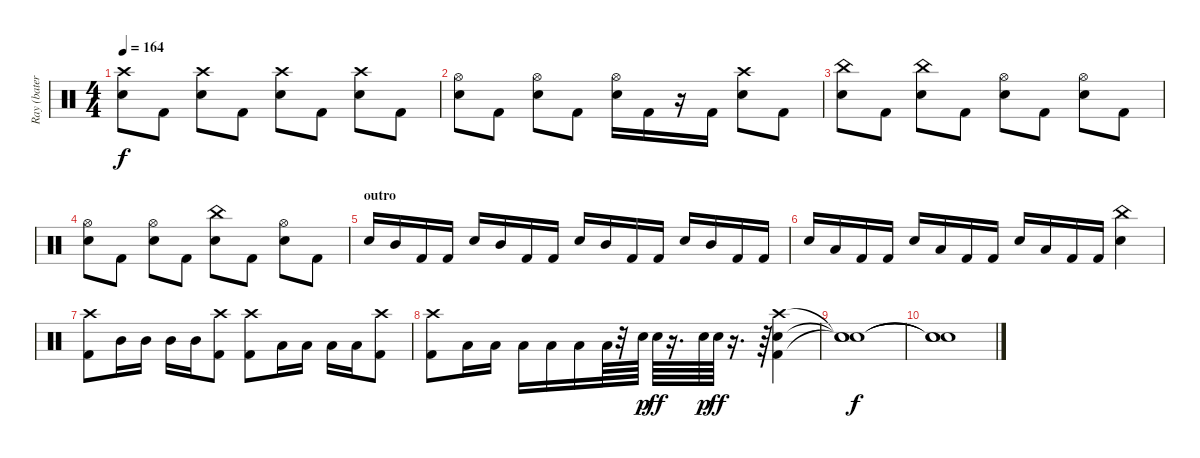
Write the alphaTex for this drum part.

\track ("Ray (batería)" "Ray (bater") {instrument percussion}
\staff {score}
\articulation defaults
\ts (4 4)
\tempo 164
\clef neutral
\ks c
("Crash high (hit)" "Snare (hit) 2").8{dy f} "Kick (hit) 2".8 ("Crash high (hit)" "Snare (hit) 2").8 "Kick (hit) 2".8 ("Crash high (hit)" "Snare (hit) 2").8 "Kick (hit) 2".8 ("Crash high (hit)" "Snare (hit) 2").8 "Kick (hit) 2".8 |
("Hi-Hat (open)" "Snare (hit) 2").8 "Kick (hit) 2".8 ("Hi-Hat (open)" "Snare (hit) 2").8 "Kick (hit) 2".8 ("Hi-Hat (open)" "Snare (hit) 2").16 "Kick (hit) 2".16 r.16 "Kick (hit) 2".16 ("Crash high (hit)" "Snare (hit) 2").8 "Kick (hit) 2".8 |
("China (hit)" "Snare (hit) 2").8 "Kick (hit) 2".8 ("China (hit)" "Snare (hit) 2").8 "Kick (hit) 2".8 ("Hi-Hat (open)" "Snare (hit) 2").8 "Kick (hit) 2".8 ("Hi-Hat (open)" "Snare (hit) 2").8 "Kick (hit) 2".8 |
("Hi-Hat (open)" "Snare (hit) 2").8 "Kick (hit) 2".8 ("Hi-Hat (open)" "Snare (hit) 2").8 "Kick (hit) 2".8 ("China (hit)" "Snare (hit) 2").8 "Kick (hit) 2".8 ("Hi-Hat (open)" "Snare (hit) 2").8 "Kick (hit) 2".8 |
\section ("" "outro")
"Snare (hit) 2".16 "Mid Tom (hit)".16 "Kick (hit) 2".16 "Kick (hit) 2".16 "Snare (hit) 2".16 "Mid Tom (hit)".16 "Kick (hit) 2".16 "Kick (hit) 2".16 "Snare (hit) 2".16 "Mid Tom (hit)".16 "Kick (hit) 2".16 "Kick (hit) 2".16 "Snare (hit) 2".16 "Mid Tom (hit)".16 "Kick (hit) 2".16 "Kick (hit) 2".16 |
"Snare (hit) 2".16 "Low Tom (hit)".16 "Kick (hit) 2".16 "Kick (hit) 2".16 "Snare (hit) 2".16 "Low Tom (hit)".16 "Kick (hit) 2".16 "Kick (hit) 2".16 "Snare (hit) 2".16 "Low Tom (hit)".16 "Kick (hit) 2".16 "Kick (hit) 2".16 ("China (hit)" "Snare (hit) 2").4 |
("Crash high (hit)" "Kick (hit) 2").8 "Mid Tom (hit)".16 "Mid Tom (hit)".16 "Mid Tom (hit)".16 "Mid Tom (hit)".16 ("Crash high (hit)" "Kick (hit) 2").8 ("Crash high (hit)" "Kick (hit) 2").8 "Low Tom (hit)".16 "Low Tom (hit)".16 "Low Tom (hit)".16 "Low Tom (hit)".16 ("Crash high (hit)" "Kick (hit) 2").8 |
("Crash high (hit)" "Kick (hit) 2").8 "Low Floor Tom (hit)".16 "Low Floor Tom (hit)".16 "Low Floor Tom (hit)".16 "Low Floor Tom (hit)".16 "Low Floor Tom (hit)".16 "Low Floor Tom (hit)".64 r.32 "Snare (hit) 2".64{dy p} "Snare (hit) 2".64{dy ff} r.16{d} "Snare (hit) 2".64{dy p} "Snare (hit) 2".64{dy ff} r.16{d} r.64 ("Crash high (hit)" "Snare (hit) 2" "Kick (hit) 2").4 |
("Snare (hit)"{t} "Snare (hit)"{t} "Snare (hit)"{t}).1{dy f} |
("Snare (hit)"{t} "Snare (hit)"{t} "Snare (hit)"{t}).1
